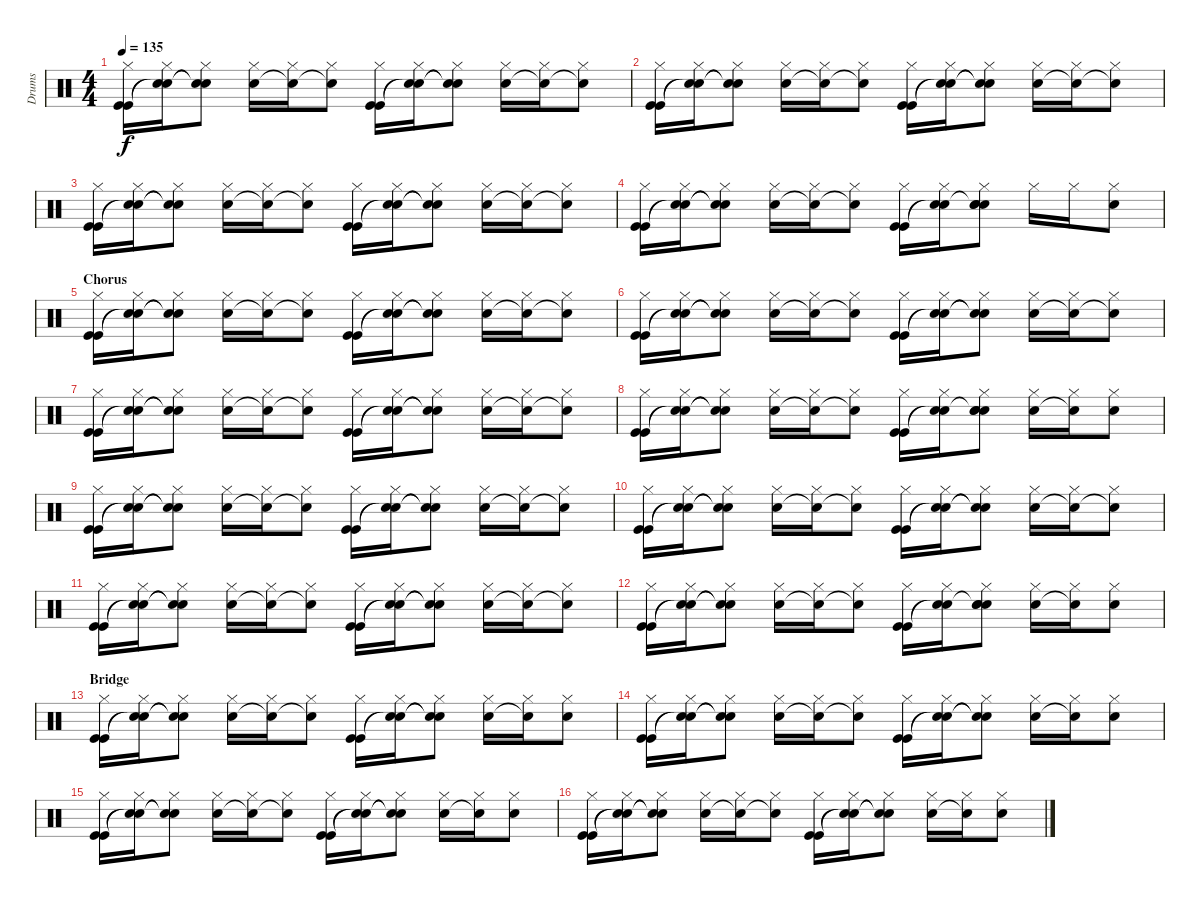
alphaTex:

\track ("Drums" "Drums") {instrument percussion}
\staff {score}
\articulation defaults
\ts (4 4)
\tempo 135
\clef neutral
\ks c
("Hi-Hat (closed)" "Kick (hit)" "Kick (hit)").16{dy f} ("Hi-Hat (closed)" "Snare (hit)"{t} "Snare (hit)"{t}).16 ("Hi-Hat (closed)" "Snare (hit)"{t} "Snare (hit)"{t}).8 ("Hi-Hat (closed)" "Snare (hit) 2").16 ("Hi-Hat (closed)" "Snare (hit)"{t}).16 ("Hi-Hat (closed)" "Snare (hit) 2"{t}).8 ("Hi-Hat (closed)" "Kick (hit)" "Kick (hit)").16 ("Hi-Hat (closed)" "Snare (hit)"{t} "Snare (hit)"{t}).16 ("Hi-Hat (closed)" "Snare (hit)"{t} "Snare (hit)"{t}).8 ("Hi-Hat (closed)" "Snare (hit) 2").16 ("Hi-Hat (closed)" "Snare (hit) 2"{t}).16 ("Hi-Hat (closed)" "Snare (hit)"{t}).8 |
("Hi-Hat (closed)" "Kick (hit)" "Kick (hit)").16 ("Hi-Hat (closed)" "Snare (hit)"{t} "Snare (hit)"{t}).16 ("Hi-Hat (closed)" "Snare (hit)"{t} "Snare (hit)"{t}).8 ("Hi-Hat (closed)" "Snare (hit) 2").16 ("Hi-Hat (closed)" "Snare (hit)"{t}).16 ("Hi-Hat (closed)" "Snare (hit) 2"{t}).8 ("Hi-Hat (closed)" "Kick (hit)" "Kick (hit)").16 ("Hi-Hat (closed)" "Snare (hit)"{t} "Snare (hit)"{t}).16 ("Hi-Hat (closed)" "Snare (hit)"{t} "Snare (hit)"{t}).8 ("Hi-Hat (closed)" "Snare (hit) 2").16 ("Hi-Hat (closed)" "Snare (hit) 2"{t}).16 ("Hi-Hat (closed)" "Snare (hit)"{t}).8 |
("Hi-Hat (closed)" "Kick (hit)" "Kick (hit)").16 ("Hi-Hat (closed)" "Snare (hit)"{t} "Snare (hit)"{t}).16 ("Hi-Hat (closed)" "Snare (hit)"{t} "Snare (hit)"{t}).8 ("Hi-Hat (closed)" "Snare (hit) 2").16 ("Hi-Hat (closed)" "Snare (hit)"{t}).16 ("Hi-Hat (closed)" "Snare (hit) 2"{t}).8 ("Hi-Hat (closed)" "Kick (hit)" "Kick (hit)").16 ("Hi-Hat (closed)" "Snare (hit)"{t} "Snare (hit)"{t}).16 ("Hi-Hat (closed)" "Snare (hit)"{t} "Snare (hit)"{t}).8 ("Hi-Hat (closed)" "Snare (hit) 2").16 ("Hi-Hat (closed)" "Snare (hit) 2"{t}).16 ("Hi-Hat (closed)" "Snare (hit)"{t}).8 |
("Hi-Hat (closed)" "Kick (hit)" "Kick (hit)").16 ("Hi-Hat (closed)" "Snare (hit)"{t} "Snare (hit)"{t}).16 ("Hi-Hat (closed)" "Snare (hit)"{t} "Snare (hit)"{t}).8 ("Hi-Hat (closed)" "Snare (hit) 2").16 ("Hi-Hat (closed)" "Snare (hit)"{t}).16 ("Hi-Hat (closed)" "Snare (hit) 2"{t}).8 ("Hi-Hat (closed)" "Kick (hit)" "Kick (hit)").16 ("Hi-Hat (closed)" "Snare (hit)"{t} "Snare (hit)"{t}).16 ("Hi-Hat (closed)" "Snare (hit) 2" "Snare (hit)"{t} "Snare (hit)").8 "Hi-Hat (closed)".16 "Hi-Hat (closed)".16 ("Hi-Hat (closed)" "Snare (hit) 2").8 |
\section ("" "Chorus")
("Hi-Hat (closed)" "Kick (hit)" "Kick (hit)").16 ("Hi-Hat (closed)" "Snare (hit)"{t} "Snare (hit)"{t}).16 ("Hi-Hat (closed)" "Snare (hit)"{t} "Snare (hit)"{t}).8 ("Hi-Hat (closed)" "Snare (hit) 2").16 ("Hi-Hat (closed)" "Snare (hit)"{t}).16 ("Hi-Hat (closed)" "Snare (hit) 2"{t}).8 ("Hi-Hat (closed)" "Kick (hit)" "Kick (hit)").16 ("Hi-Hat (closed)" "Snare (hit)"{t} "Snare (hit)"{t}).16 ("Hi-Hat (closed)" "Snare (hit)"{t} "Snare (hit)"{t}).8 ("Hi-Hat (closed)" "Snare (hit) 2").16 ("Hi-Hat (closed)" "Snare (hit) 2"{t}).16 ("Hi-Hat (closed)" "Snare (hit)"{t}).8 |
("Hi-Hat (closed)" "Kick (hit)" "Kick (hit)").16 ("Hi-Hat (closed)" "Snare (hit)"{t} "Snare (hit)"{t}).16 ("Hi-Hat (closed)" "Snare (hit)"{t} "Snare (hit)"{t}).8 ("Hi-Hat (closed)" "Snare (hit) 2").16 ("Hi-Hat (closed)" "Snare (hit)"{t}).16 ("Hi-Hat (closed)" "Snare (hit) 2"{t}).8 ("Hi-Hat (closed)" "Kick (hit)" "Kick (hit)").16 ("Hi-Hat (closed)" "Snare (hit)"{t} "Snare (hit)"{t}).16 ("Hi-Hat (closed)" "Snare (hit)"{t} "Snare (hit)"{t}).8 ("Hi-Hat (closed)" "Snare (hit) 2").16 ("Hi-Hat (closed)" "Snare (hit) 2"{t}).16 ("Hi-Hat (closed)" "Snare (hit)"{t}).8 |
("Hi-Hat (closed)" "Kick (hit)" "Kick (hit)").16 ("Hi-Hat (closed)" "Snare (hit)"{t} "Snare (hit)"{t}).16 ("Hi-Hat (closed)" "Snare (hit)"{t} "Snare (hit)"{t}).8 ("Hi-Hat (closed)" "Snare (hit) 2").16 ("Hi-Hat (closed)" "Snare (hit)"{t}).16 ("Hi-Hat (closed)" "Snare (hit) 2"{t}).8 ("Hi-Hat (closed)" "Kick (hit)" "Kick (hit)").16 ("Hi-Hat (closed)" "Snare (hit)"{t} "Snare (hit)"{t}).16 ("Hi-Hat (closed)" "Snare (hit)"{t} "Snare (hit)"{t}).8 ("Hi-Hat (closed)" "Snare (hit) 2").16 ("Hi-Hat (closed)" "Snare (hit) 2"{t}).16 ("Hi-Hat (closed)" "Snare (hit)"{t}).8 |
("Hi-Hat (closed)" "Kick (hit)" "Kick (hit)").16 ("Hi-Hat (closed)" "Snare (hit)"{t} "Snare (hit)"{t}).16 ("Hi-Hat (closed)" "Snare (hit)"{t} "Snare (hit)"{t}).8 ("Hi-Hat (closed)" "Snare (hit) 2").16 ("Hi-Hat (closed)" "Snare (hit)"{t}).16 ("Hi-Hat (closed)" "Snare (hit) 2"{t}).8 ("Hi-Hat (closed)" "Kick (hit)" "Kick (hit)").16 ("Hi-Hat (closed)" "Snare (hit)"{t} "Snare (hit)"{t}).16 ("Hi-Hat (closed)" "Snare (hit) 2" "Snare (hit)"{t} "Snare (hit)").8 ("Hi-Hat (closed)" "Snare (hit) 2").16 ("Hi-Hat (closed)" "Snare (hit) 2"{t}).16 ("Hi-Hat (closed)" "Snare (hit) 2").8 |
("Hi-Hat (closed)" "Kick (hit)" "Kick (hit)").16 ("Hi-Hat (closed)" "Snare (hit)"{t} "Snare (hit)"{t}).16 ("Hi-Hat (closed)" "Snare (hit)"{t} "Snare (hit)"{t}).8 ("Hi-Hat (closed)" "Snare (hit) 2").16 ("Hi-Hat (closed)" "Snare (hit)"{t}).16 ("Hi-Hat (closed)" "Snare (hit) 2"{t}).8 ("Hi-Hat (closed)" "Kick (hit)" "Kick (hit)").16 ("Hi-Hat (closed)" "Snare (hit)"{t} "Snare (hit)"{t}).16 ("Hi-Hat (closed)" "Snare (hit)"{t} "Snare (hit)"{t}).8 ("Hi-Hat (closed)" "Snare (hit) 2").16 ("Hi-Hat (closed)" "Snare (hit) 2"{t}).16 ("Hi-Hat (closed)" "Snare (hit)"{t}).8 |
("Hi-Hat (closed)" "Kick (hit)" "Kick (hit)").16 ("Hi-Hat (closed)" "Snare (hit)"{t} "Snare (hit)"{t}).16 ("Hi-Hat (closed)" "Snare (hit)"{t} "Snare (hit)"{t}).8 ("Hi-Hat (closed)" "Snare (hit) 2").16 ("Hi-Hat (closed)" "Snare (hit)"{t}).16 ("Hi-Hat (closed)" "Snare (hit) 2"{t}).8 ("Hi-Hat (closed)" "Kick (hit)" "Kick (hit)").16 ("Hi-Hat (closed)" "Snare (hit)"{t} "Snare (hit)"{t}).16 ("Hi-Hat (closed)" "Snare (hit)"{t} "Snare (hit)"{t}).8 ("Hi-Hat (closed)" "Snare (hit) 2").16 ("Hi-Hat (closed)" "Snare (hit) 2"{t}).16 ("Hi-Hat (closed)" "Snare (hit)"{t}).8 |
("Hi-Hat (closed)" "Kick (hit)" "Kick (hit)").16 ("Hi-Hat (closed)" "Snare (hit)"{t} "Snare (hit)"{t}).16 ("Hi-Hat (closed)" "Snare (hit)"{t} "Snare (hit)"{t}).8 ("Hi-Hat (closed)" "Snare (hit) 2").16 ("Hi-Hat (closed)" "Snare (hit)"{t}).16 ("Hi-Hat (closed)" "Snare (hit) 2"{t}).8 ("Hi-Hat (closed)" "Kick (hit)" "Kick (hit)").16 ("Hi-Hat (closed)" "Snare (hit)"{t} "Snare (hit)"{t}).16 ("Hi-Hat (closed)" "Snare (hit)"{t} "Snare (hit)"{t}).8 ("Hi-Hat (closed)" "Snare (hit) 2").16 ("Hi-Hat (closed)" "Snare (hit) 2"{t}).16 ("Hi-Hat (closed)" "Snare (hit)"{t}).8 |
("Hi-Hat (closed)" "Kick (hit)" "Kick (hit)").16 ("Hi-Hat (closed)" "Snare (hit)"{t} "Snare (hit)"{t}).16 ("Hi-Hat (closed)" "Snare (hit)"{t} "Snare (hit)"{t}).8 ("Hi-Hat (closed)" "Snare (hit) 2").16 ("Hi-Hat (closed)" "Snare (hit)"{t}).16 ("Hi-Hat (closed)" "Snare (hit) 2"{t}).8 ("Hi-Hat (closed)" "Kick (hit)" "Kick (hit)").16 ("Hi-Hat (closed)" "Snare (hit)"{t} "Snare (hit)"{t}).16 ("Hi-Hat (closed)" "Snare (hit) 2" "Snare (hit)"{t} "Snare (hit)").8 ("Hi-Hat (closed)" "Snare (hit) 2").16 ("Hi-Hat (closed)" "Snare (hit) 2"{t}).16 ("Hi-Hat (closed)" "Snare (hit) 2").8 |
\section ("" "Bridge")
("Hi-Hat (closed)" "Kick (hit)" "Kick (hit)").16 ("Hi-Hat (closed)" "Snare (hit)"{t} "Snare (hit)"{t}).16 ("Hi-Hat (closed)" "Snare (hit)"{t} "Snare (hit)"{t}).8 ("Hi-Hat (closed)" "Snare (hit) 2").16 ("Hi-Hat (closed)" "Snare (hit)"{t}).16 ("Hi-Hat (closed)" "Snare (hit)"{t}).8 ("Hi-Hat (closed)" "Kick (hit)" "Kick (hit)").16 ("Hi-Hat (closed)" "Snare (hit)"{t} "Snare (hit)"{t}).16 ("Hi-Hat (closed)" "Snare (hit)"{t} "Snare (hit)"{t}).8 ("Hi-Hat (closed)" "Snare (hit) 2").16 ("Hi-Hat (closed)" "Snare (hit) 2"{t}).16 ("Hi-Hat (closed)" "Snare (hit) 2").8 |
("Hi-Hat (closed)" "Kick (hit)" "Kick (hit)").16 ("Hi-Hat (closed)" "Snare (hit)"{t} "Snare (hit)"{t}).16 ("Hi-Hat (closed)" "Snare (hit)"{t} "Snare (hit)"{t}).8 ("Hi-Hat (closed)" "Snare (hit) 2").16 ("Hi-Hat (closed)" "Snare (hit)"{t}).16 ("Hi-Hat (closed)" "Snare (hit)"{t}).8 ("Hi-Hat (closed)" "Kick (hit)" "Kick (hit)").16 ("Hi-Hat (closed)" "Snare (hit)"{t} "Snare (hit)"{t}).16 ("Hi-Hat (closed)" "Snare (hit)"{t} "Snare (hit)"{t}).8 ("Hi-Hat (closed)" "Snare (hit) 2").16 ("Hi-Hat (closed)" "Snare (hit) 2"{t}).16 ("Hi-Hat (closed)" "Snare (hit) 2").8 |
("Hi-Hat (closed)" "Kick (hit)" "Kick (hit)").16 ("Hi-Hat (closed)" "Snare (hit)"{t} "Snare (hit)"{t}).16 ("Hi-Hat (closed)" "Snare (hit)"{t} "Snare (hit)"{t}).8 ("Hi-Hat (closed)" "Snare (hit) 2").16 ("Hi-Hat (closed)" "Snare (hit)"{t}).16 ("Hi-Hat (closed)" "Snare (hit)"{t}).8 ("Hi-Hat (closed)" "Kick (hit)" "Kick (hit)").16 ("Hi-Hat (closed)" "Snare (hit)"{t} "Snare (hit)"{t}).16 ("Hi-Hat (closed)" "Snare (hit)"{t} "Snare (hit)"{t}).8 ("Hi-Hat (closed)" "Snare (hit) 2").16 ("Hi-Hat (closed)" "Snare (hit) 2"{t}).16 ("Hi-Hat (closed)" "Snare (hit) 2").8 |
("Hi-Hat (closed)" "Kick (hit)" "Kick (hit)").16 ("Hi-Hat (closed)" "Snare (hit)"{t} "Snare (hit)"{t}).16 ("Hi-Hat (closed)" "Snare (hit)"{t} "Snare (hit)"{t}).8 ("Hi-Hat (closed)" "Snare (hit) 2").16 ("Hi-Hat (closed)" "Snare (hit)"{t}).16 ("Hi-Hat (closed)" "Snare (hit)"{t}).8 ("Hi-Hat (closed)" "Kick (hit)" "Kick (hit)").16 ("Hi-Hat (closed)" "Snare (hit)"{t} "Snare (hit)"{t}).16 ("Hi-Hat (closed)" "Snare (hit)"{t} "Snare (hit)"{t}).8 ("Hi-Hat (closed)" "Snare (hit) 2").16 ("Hi-Hat (closed)" "Snare (hit) 2"{t}).16 ("Hi-Hat (closed)" "Snare (hit) 2").8
